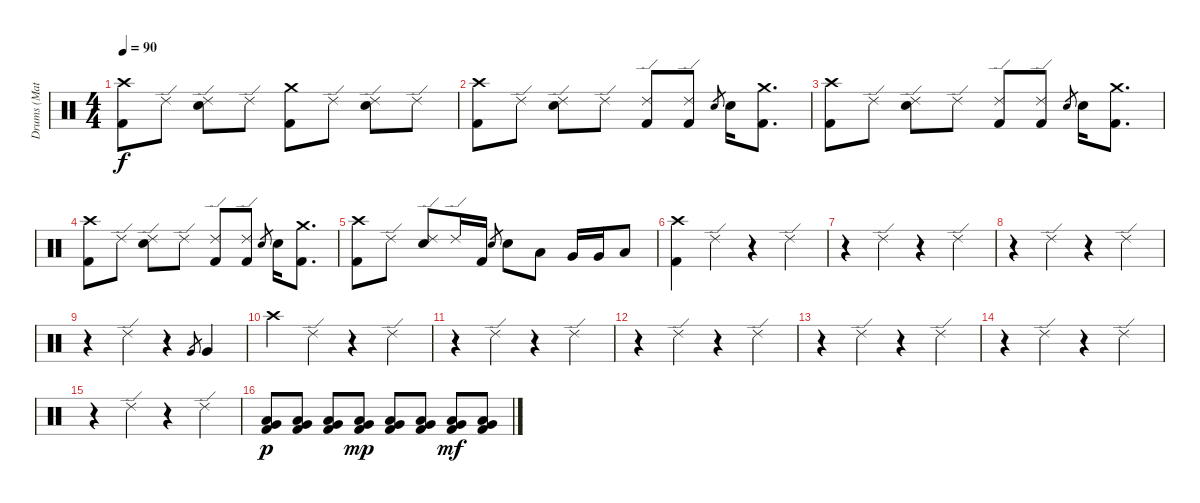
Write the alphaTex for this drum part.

\track ("Drums (Matt)" "Drums (Mat") {instrument percussion}
\staff {score}
\articulation defaults
\ts (4 4)
\tempo 90
\clef neutral
\ks c
("Crash high (hit)" "Kick (hit) 2").8{dy f} "Ride (edge) 2".8 ("Ride (edge) 2" "Snare (hit) 2").8 "Ride (edge) 2".8 ("Crash medium (hit)" "Kick (hit) 2").8 "Ride (edge) 2".8 ("Ride (edge) 2" "Snare (hit) 2").8 "Ride (edge) 2".8 |
("Crash high (hit)" "Kick (hit) 2").8 "Ride (edge) 2".8 ("Ride (edge) 2" "Snare (hit) 2").8 "Ride (edge) 2".8 ("Ride (edge) 2" "Kick (hit) 2").8 ("Ride (edge) 2" "Kick (hit) 2").8 "Snare (hit) 2".8{gr} "Snare (hit) 2".16 ("Crash medium (hit)" "Kick (hit) 2").8{d} |
("Crash high (hit)" "Kick (hit) 2").8 "Ride (edge) 2".8 ("Ride (edge) 2" "Snare (hit) 2").8 "Ride (edge) 2".8 ("Ride (edge) 2" "Kick (hit) 2").8 ("Ride (edge) 2" "Kick (hit) 2").8 "Snare (hit) 2".8{gr} "Snare (hit) 2".16 ("Crash medium (hit)" "Kick (hit) 2").8{d} |
("Crash high (hit)" "Kick (hit) 2").8 "Ride (edge) 2".8 ("Ride (edge) 2" "Snare (hit) 2").8 "Ride (edge) 2".8 ("Ride (edge) 2" "Kick (hit) 2").8 ("Ride (edge) 2" "Kick (hit) 2").8 "Snare (hit) 2".8{gr} "Snare (hit) 2".16 ("Crash medium (hit)" "Kick (hit) 2").8{d} |
("Crash high (hit)" "Kick (hit) 2").8 "Ride (edge) 2".8 ("Ride (edge) 2" "Snare (hit) 2").8 "Ride (edge) 2".16 "Kick (hit) 2".16 "Snare (hit) 2".8{gr} "Snare (hit) 2".8 "Low Tom (hit)".8 "Very Low Tom (hit)".16 "Very Low Tom (hit)".16 "Low Floor Tom (hit)".8 |
("Crash high (hit)" "Kick (hit) 2").4 "Ride (edge) 2".4 r.4 "Ride (edge) 2".4 |
r.4 "Ride (edge) 2".4 r.4 "Ride (edge) 2".4 |
r.4 "Ride (edge) 2".4 r.4 "Ride (edge) 2".4 |
r.4 "Ride (edge) 2".4 r.4 "Very Low Tom (hit)".8{gr} "Very Low Tom (hit)".4 |
"Crash high (hit)".4 "Ride (edge) 2".4 r.4 "Ride (edge) 2".4 |
r.4 "Ride (edge) 2".4 r.4 "Ride (edge) 2".4 |
r.4 "Ride (edge) 2".4 r.4 "Ride (edge) 2".4 |
r.4 "Ride (edge) 2".4 r.4 "Ride (edge) 2".4 |
r.4 "Ride (edge) 2".4 r.4 "Ride (edge) 2".4 |
r.4 "Ride (edge) 2".4 r.4 "Ride (edge) 2".4 |
("Low Tom (hit)" "Very Low Tom (hit)" "Kick (hit) 2").8{dy p} ("Low Tom (hit)" "Very Low Tom (hit)" "Kick (hit) 2").8 ("Low Tom (hit)" "Very Low Tom (hit)" "Kick (hit) 2").8 ("Low Tom (hit)" "Very Low Tom (hit)" "Kick (hit) 2").8{dy mp} ("Low Tom (hit)" "Very Low Tom (hit)" "Kick (hit) 2").8 ("Low Tom (hit)" "Very Low Tom (hit)" "Kick (hit) 2").8 ("Low Tom (hit)" "Very Low Tom (hit)" "Kick (hit) 2").8{dy mf} ("Low Tom (hit)" "Very Low Tom (hit)" "Kick (hit) 2").8
